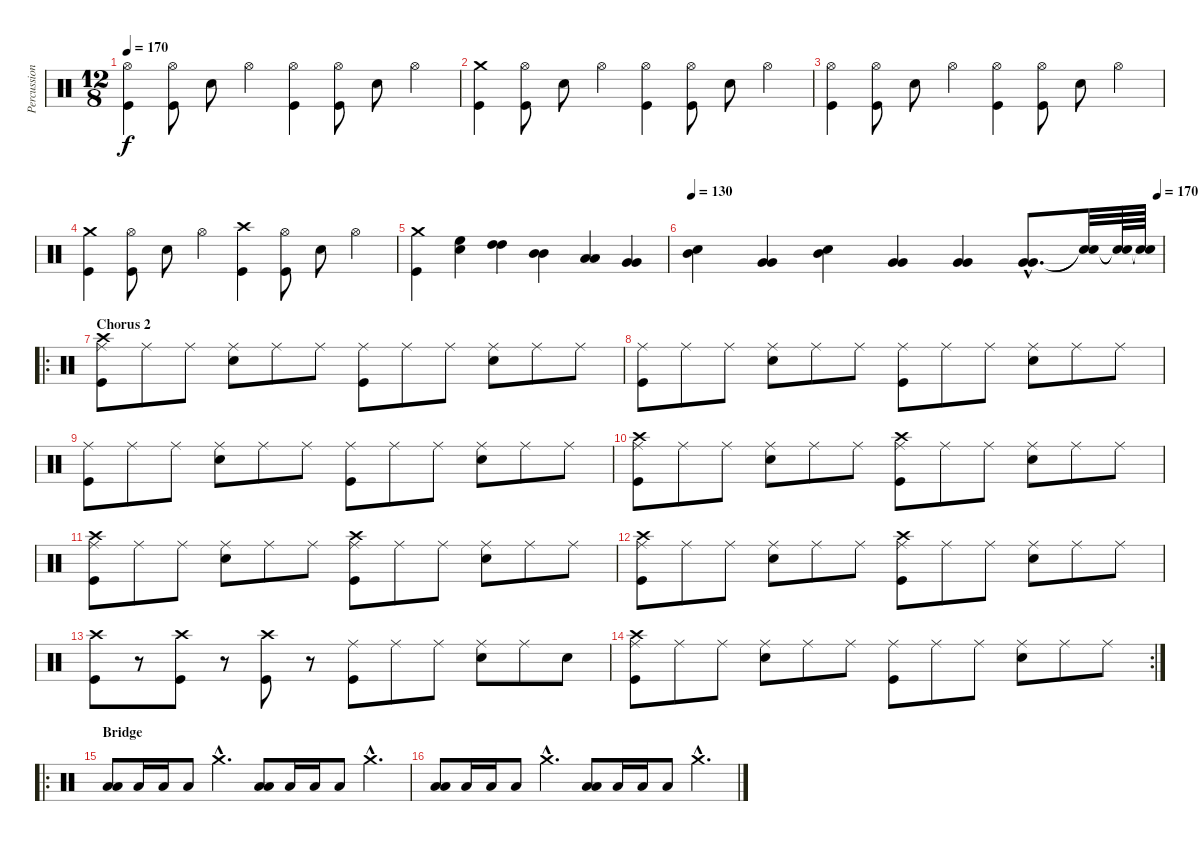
\track ("Percussion" "Percussion") {instrument percussion}
\staff {score}
\articulation defaults
\ts (12 8)
\tempo 170
\clef neutral
\ks c
("Hi-Hat (open)" "Kick (hit)").4{dy f} ("Hi-Hat (open)" "Kick (hit)").8 "Snare (hit) 2".8 "Hi-Hat (open)".4 ("Hi-Hat (open)" "Kick (hit)").4 ("Hi-Hat (open)" "Kick (hit)").8 "Snare (hit) 2".8 "Hi-Hat (open)".4 |
("Crash medium (hit)" "Kick (hit)").4 ("Hi-Hat (open)" "Kick (hit)").8 "Snare (hit) 2".8 "Hi-Hat (open)".4 ("Hi-Hat (open)" "Kick (hit)").4 ("Hi-Hat (open)" "Kick (hit)").8 "Snare (hit) 2".8 "Hi-Hat (open)".4 |
("Hi-Hat (open)" "Kick (hit)").4 ("Hi-Hat (open)" "Kick (hit)").8 "Snare (hit) 2".8 "Hi-Hat (open)".4 ("Hi-Hat (open)" "Kick (hit)").4 ("Hi-Hat (open)" "Kick (hit)").8 "Snare (hit) 2".8 "Hi-Hat (open)".4 |
("Crash medium (hit)" "Kick (hit)").4 ("Hi-Hat (open)" "Kick (hit)").8 "Snare (hit) 2".8 "Hi-Hat (open)".4 ("Crash high (hit)" "Kick (hit)").4 ("Hi-Hat (open)" "Kick (hit)").8 "Snare (hit) 2".8 "Hi-Hat (open)".4 |
("Crash medium (hit)" "Kick (hit)").4 ("Snare (hit) 2" "High Floor Tom (hit)").4 ("High Tom (hit)" "High Tom (hit)").4 ("Mid Tom (hit)" "Mid Tom (hit)").4 ("Low Tom (hit)" "Low Tom (hit)").4 ("Very Low Tom (hit)" "Very Low Tom (hit)").4 |
\tempo 130
\tempo (170 0.9895833333333334)
("Snare (hit) 2" "Mid Tom (hit)").4 ("Very Low Tom (hit)" "Very Low Tom (hit)").4 ("Snare (hit) 2" "Mid Tom (hit)").4 ("Very Low Tom (hit)" "Very Low Tom (hit)").4 ("Very Low Tom (hit)" "Very Low Tom (hit)").4 ("Very Low Tom (hit)"{hac} "Very Low Tom (hit)"{hac}).8{d} ("Snare (hit)"{t} "Snare (hit)"{t}).32 ("Snare (hit)"{t} "Snare (hit)"{t}).64 ("Snare (hit)"{t} "Snare (hit)"{t}).64 |
\ro
\section ("" "Chorus 2")
("Crash high (hit)" "Ride (middle)" "Kick (hit)").8 "Ride (middle)".8 "Ride (middle)".8 ("Ride (middle)" "Snare (hit) 2").8 "Ride (middle)".8 "Ride (middle)".8 ("Ride (middle)" "Kick (hit)").8 "Ride (middle)".8 "Ride (middle)".8 ("Ride (middle)" "Snare (hit) 2").8 "Ride (middle)".8 "Ride (middle)".8 |
("Ride (middle)" "Kick (hit)").8 "Ride (middle)".8 "Ride (middle)".8 ("Ride (middle)" "Snare (hit) 2").8 "Ride (middle)".8 "Ride (middle)".8 ("Ride (middle)" "Kick (hit)").8 "Ride (middle)".8 "Ride (middle)".8 ("Ride (middle)" "Snare (hit) 2").8 "Ride (middle)".8 "Ride (middle)".8 |
("Ride (middle)" "Kick (hit)").8 "Ride (middle)".8 "Ride (middle)".8 ("Ride (middle)" "Snare (hit) 2").8 "Ride (middle)".8 "Ride (middle)".8 ("Ride (middle)" "Kick (hit)").8 "Ride (middle)".8 "Ride (middle)".8 ("Ride (middle)" "Snare (hit) 2").8 "Ride (middle)".8 "Ride (middle)".8 |
("Crash high (hit)" "Ride (middle)" "Kick (hit)").8 "Ride (middle)".8 "Ride (middle)".8 ("Ride (middle)" "Snare (hit) 2").8 "Ride (middle)".8 "Ride (middle)".8 ("Crash high (hit)" "Ride (middle)" "Kick (hit)").8 "Ride (middle)".8 "Ride (middle)".8 ("Ride (middle)" "Snare (hit) 2").8 "Ride (middle)".8 "Ride (middle)".8 |
("Crash high (hit)" "Ride (middle)" "Kick (hit)").8 "Ride (middle)".8 "Ride (middle)".8 ("Ride (middle)" "Snare (hit) 2").8 "Ride (middle)".8 "Ride (middle)".8 ("Crash high (hit)" "Ride (middle)" "Kick (hit)").8 "Ride (middle)".8 "Ride (middle)".8 ("Ride (middle)" "Snare (hit) 2").8 "Ride (middle)".8 "Ride (middle)".8 |
("Crash high (hit)" "Ride (middle)" "Kick (hit)").8 "Ride (middle)".8 "Ride (middle)".8 ("Ride (middle)" "Snare (hit) 2").8 "Ride (middle)".8 "Ride (middle)".8 ("Crash high (hit)" "Ride (middle)" "Kick (hit)").8 "Ride (middle)".8 "Ride (middle)".8 ("Ride (middle)" "Snare (hit) 2").8 "Ride (middle)".8 "Ride (middle)".8 |
("Crash high (hit)" "Kick (hit)").8 r.8{volume 0} ("Crash high (hit)" "Kick (hit)").8{volume 10} r.8{volume 0} ("Crash high (hit)" "Kick (hit)").8{volume 10} r.8{volume 0} ("Ride (middle)" "Kick (hit)").8{volume 10} "Ride (middle)".8 "Ride (middle)".8 ("Ride (middle)" "Snare (hit) 2").8 "Ride (middle)".8 "Snare (hit)".8 |
\rc 2
("Crash high (hit)" "Ride (middle)" "Kick (hit)").8 "Ride (middle)".8 "Ride (middle)".8 ("Ride (middle)" "Snare (hit) 2").8 "Ride (middle)".8 "Ride (middle)".8 ("Ride (middle)" "Kick (hit)").8 "Ride (middle)".8 "Ride (middle)".8 ("Ride (middle)" "Snare (hit) 2").8 "Ride (middle)".8 "Ride (middle)".8 |
\ro
\section ("" "Bridge")
("Low Tom (hit)" "Low Tom (hit)").8 "Low Tom (hit)".16 "Low Tom (hit)".16 "Low Tom (hit)".8 "Crash medium (hit)"{hac}.4{d} ("Low Tom (hit)" "Low Tom (hit)").8 "Low Tom (hit)".16 "Low Tom (hit)".16 "Low Tom (hit)".8 "Crash medium (hit)"{hac}.4{d} |
("Low Tom (hit)" "Low Tom (hit)").8 "Low Tom (hit)".16 "Low Tom (hit)".16 "Low Tom (hit)".8 "Crash medium (hit)"{hac}.4{d} ("Low Tom (hit)" "Low Tom (hit)").8 "Low Tom (hit)".16 "Low Tom (hit)".16 "Low Tom (hit)".8 "Crash medium (hit)"{hac}.4{d}
